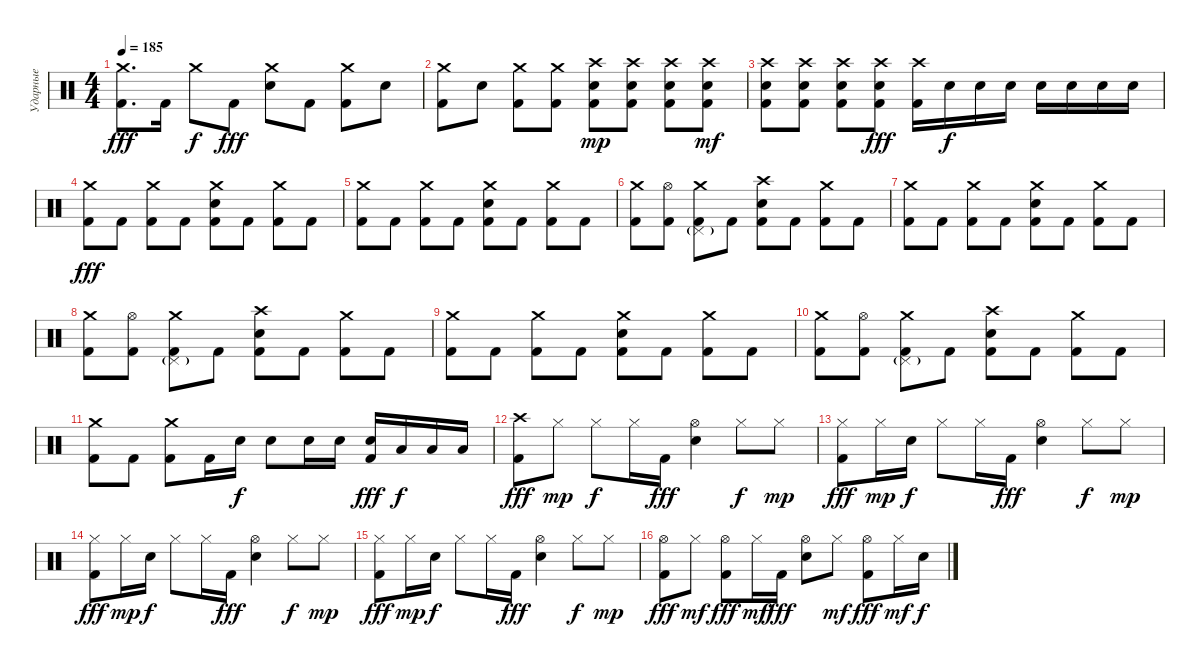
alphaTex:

\track ("Ударные" "Ударные") {instrument percussion}
\staff {score}
\articulation defaults
\ts (4 4)
\tempo 185
\clef neutral
\ks c
("Crash medium (hit)" "Kick (hit) 2").8{d dy fff} "Kick (hit) 2".16 "Crash medium (hit)".8{dy f} "Kick (hit) 2".8{dy fff} ("Crash medium (hit)" "Electric Snare (hit)").8 "Kick (hit) 2".8 ("Crash medium (hit)" "Kick (hit) 2").8 "Electric Snare (hit)".8 |
("Crash medium (hit)" "Kick (hit) 2").8 "Electric Snare (hit)".8 ("Crash medium (hit)" "Kick (hit) 2").8 ("Crash medium (hit)" "Kick (hit) 2").8 ("Crash high (hit)" "Electric Snare (hit)" "Kick (hit) 2").8{dy mp} ("Crash high (hit)" "Electric Snare (hit)" "Kick (hit) 2").8 ("Crash high (hit)" "Electric Snare (hit)" "Kick (hit) 2").8 ("Crash high (hit)" "Electric Snare (hit)" "Kick (hit) 2").8{dy mf} |
("Crash high (hit)" "Electric Snare (hit)" "Kick (hit) 2").8 ("Crash high (hit)" "Electric Snare (hit)" "Kick (hit) 2").8 ("Crash high (hit)" "Electric Snare (hit)" "Kick (hit) 2").8 ("Crash high (hit)" "Electric Snare (hit)" "Kick (hit) 2").8{dy fff} ("Crash high (hit)" "Kick (hit) 2").16 "Electric Snare (hit)".16{dy f} "Electric Snare (hit)".16 "Electric Snare (hit)".16 "Electric Snare (hit)".16 "Electric Snare (hit)".16 "Electric Snare (hit)".16 "Electric Snare (hit)".16 |
("Crash medium (hit)" "Kick (hit) 2").8{dy fff} "Kick (hit) 2".8 ("Crash medium (hit)" "Kick (hit) 2").8 "Kick (hit) 2".8 ("Crash medium (hit)" "Electric Snare (hit)" "Kick (hit) 2").8 "Kick (hit) 2".8 ("Crash medium (hit)" "Kick (hit) 2").8 "Kick (hit) 2".8 |
("Crash medium (hit)" "Kick (hit) 2").8 "Kick (hit) 2".8 ("Crash medium (hit)" "Kick (hit) 2").8 "Kick (hit) 2".8 ("Crash medium (hit)" "Electric Snare (hit)" "Kick (hit) 2").8 "Kick (hit) 2".8 ("Crash medium (hit)" "Kick (hit) 2").8 "Kick (hit) 2".8 |
("Crash medium (hit)" "Kick (hit) 2").8 ("Hi-Hat (open)" "Kick (hit) 2").8 ("Crash medium (hit)" "Pedal Hi-Hat (hit)"{g} "Kick (hit) 2").8 "Kick (hit) 2".8 ("Crash high (hit)" "Electric Snare (hit)" "Kick (hit) 2").8 "Kick (hit) 2".8 ("Crash medium (hit)" "Kick (hit) 2").8 "Kick (hit) 2".8 |
("Crash medium (hit)" "Kick (hit) 2").8 "Kick (hit) 2".8 ("Crash medium (hit)" "Kick (hit) 2").8 "Kick (hit) 2".8 ("Crash medium (hit)" "Electric Snare (hit)" "Kick (hit) 2").8 "Kick (hit) 2".8 ("Crash medium (hit)" "Kick (hit) 2").8 "Kick (hit) 2".8 |
("Crash medium (hit)" "Kick (hit) 2").8 ("Hi-Hat (open)" "Kick (hit) 2").8 ("Crash medium (hit)" "Pedal Hi-Hat (hit)"{g} "Kick (hit) 2").8 "Kick (hit) 2".8 ("Crash high (hit)" "Electric Snare (hit)" "Kick (hit) 2").8 "Kick (hit) 2".8 ("Crash medium (hit)" "Kick (hit) 2").8 "Kick (hit) 2".8 |
("Crash medium (hit)" "Kick (hit) 2").8 "Kick (hit) 2".8 ("Crash medium (hit)" "Kick (hit) 2").8 "Kick (hit) 2".8 ("Crash medium (hit)" "Electric Snare (hit)" "Kick (hit) 2").8 "Kick (hit) 2".8 ("Crash medium (hit)" "Kick (hit) 2").8 "Kick (hit) 2".8 |
("Crash medium (hit)" "Kick (hit) 2").8 ("Hi-Hat (open)" "Kick (hit) 2").8 ("Crash medium (hit)" "Pedal Hi-Hat (hit)"{g} "Kick (hit) 2").8 "Kick (hit) 2".8 ("Crash high (hit)" "Electric Snare (hit)" "Kick (hit) 2").8 "Kick (hit) 2".8 ("Crash medium (hit)" "Kick (hit) 2").8 "Kick (hit) 2".8 |
("Crash medium (hit)" "Kick (hit) 2").8 "Kick (hit) 2".8 ("Crash medium (hit)" "Kick (hit) 2").8 "Kick (hit) 2".16 "Electric Snare (hit)".16{dy f} "Electric Snare (hit)".8 "Electric Snare (hit)".16 "Electric Snare (hit)".16 ("Electric Snare (hit)" "Kick (hit) 2").16{dy fff} "Low Floor Tom (hit)".16{dy f} "Low Floor Tom (hit)".16 "Low Floor Tom (hit)".16 |
("Crash high (hit)" "Kick (hit) 2").8{dy fff} "Hi-Hat (closed)".8{dy mp} "Hi-Hat (closed)".8{dy f} "Hi-Hat (closed)".16 "Kick (hit) 2".16{dy fff} ("Hi-Hat (open)" "Electric Snare (hit)").4 "Hi-Hat (closed)".8{dy f} "Hi-Hat (closed)".8{dy mp} |
("Hi-Hat (closed)" "Kick (hit) 2").8{dy fff} "Hi-Hat (closed)".16{dy mp} "Electric Snare (hit)".16{dy f} "Hi-Hat (closed)".8 "Hi-Hat (closed)".16 "Kick (hit) 2".16{dy fff} ("Hi-Hat (open)" "Electric Snare (hit)").4 "Hi-Hat (closed)".8{dy f} "Hi-Hat (closed)".8{dy mp} |
("Hi-Hat (closed)" "Kick (hit) 2").8{dy fff} "Hi-Hat (closed)".16{dy mp} "Electric Snare (hit)".16{dy f} "Hi-Hat (closed)".8 "Hi-Hat (closed)".16 "Kick (hit) 2".16{dy fff} ("Hi-Hat (open)" "Electric Snare (hit)").4 "Hi-Hat (closed)".8{dy f} "Hi-Hat (closed)".8{dy mp} |
("Hi-Hat (closed)" "Kick (hit) 2").8{dy fff} "Hi-Hat (closed)".16{dy mp} "Electric Snare (hit)".16{dy f} "Hi-Hat (closed)".8 "Hi-Hat (closed)".16 "Kick (hit) 2".16{dy fff} ("Hi-Hat (open)" "Electric Snare (hit)").4 "Hi-Hat (closed)".8{dy f} "Hi-Hat (closed)".8{dy mp} |
("Hi-Hat (open)" "Kick (hit) 2").8{dy fff} "Hi-Hat (closed)".8{dy mf} ("Hi-Hat (open)" "Kick (hit) 2").8{dy fff} "Hi-Hat (closed)".16{dy mf} "Kick (hit) 2".16{dy fff} ("Hi-Hat (open)" "Electric Snare (hit)").8 "Hi-Hat (closed)".8{dy mf} ("Hi-Hat (open)" "Kick (hit) 2").8{dy fff} "Hi-Hat (closed)".16{dy mf} "Electric Snare (hit)".16{dy f}
